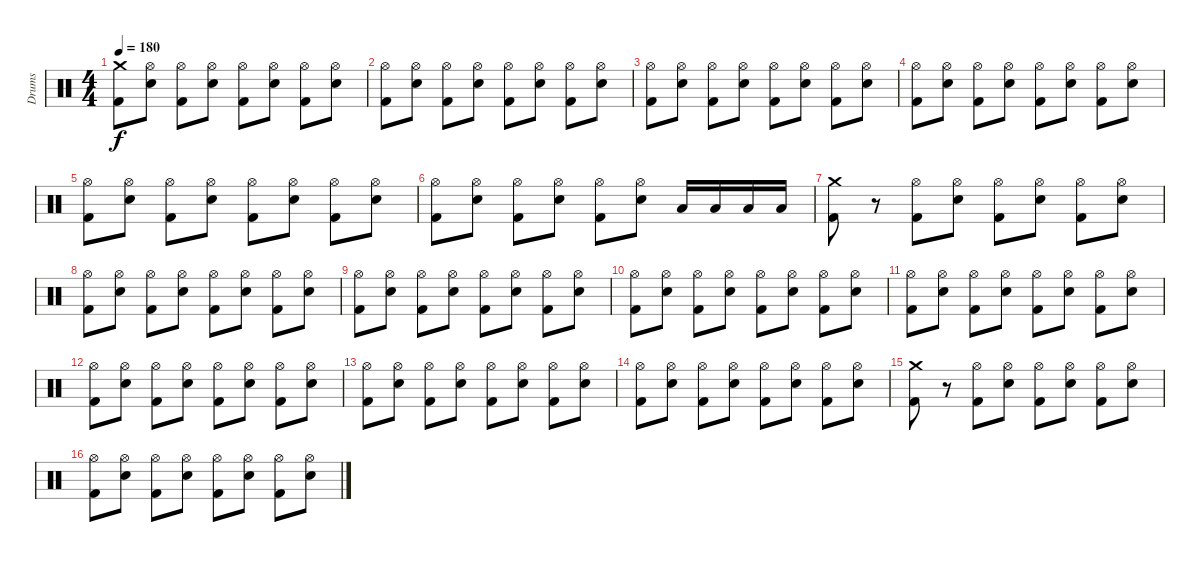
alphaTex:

\track ("Drums" "Drums") {instrument percussion}
\staff {score}
\articulation defaults
\ts (4 4)
\tempo 180
\clef neutral
\ks c
("Kick (hit) 2" "Crash medium (hit)").8{dy f} ("Electric Snare (hit)" "Hi-Hat (open)").8 ("Kick (hit) 2" "Hi-Hat (open)").8 ("Electric Snare (hit)" "Hi-Hat (open)").8 ("Kick (hit) 2" "Hi-Hat (open)").8 ("Electric Snare (hit)" "Hi-Hat (open)").8 ("Kick (hit) 2" "Hi-Hat (open)").8 ("Electric Snare (hit)" "Hi-Hat (open)").8 |
("Hi-Hat (open)" "Kick (hit) 2").8 ("Electric Snare (hit)" "Hi-Hat (open)").8 ("Kick (hit) 2" "Hi-Hat (open)").8 ("Electric Snare (hit)" "Hi-Hat (open)").8 ("Kick (hit) 2" "Hi-Hat (open)").8 ("Electric Snare (hit)" "Hi-Hat (open)").8 ("Kick (hit) 2" "Hi-Hat (open)").8 ("Electric Snare (hit)" "Hi-Hat (open)").8 |
("Hi-Hat (open)" "Kick (hit) 2").8 ("Electric Snare (hit)" "Hi-Hat (open)").8 ("Kick (hit) 2" "Hi-Hat (open)").8 ("Electric Snare (hit)" "Hi-Hat (open)").8 ("Kick (hit) 2" "Hi-Hat (open)").8 ("Electric Snare (hit)" "Hi-Hat (open)").8 ("Kick (hit) 2" "Hi-Hat (open)").8 ("Electric Snare (hit)" "Hi-Hat (open)").8 |
("Hi-Hat (open)" "Kick (hit) 2").8 ("Electric Snare (hit)" "Hi-Hat (open)").8 ("Kick (hit) 2" "Hi-Hat (open)").8 ("Electric Snare (hit)" "Hi-Hat (open)").8 ("Kick (hit) 2" "Hi-Hat (open)").8 ("Electric Snare (hit)" "Hi-Hat (open)").8 ("Kick (hit) 2" "Hi-Hat (open)").8 ("Electric Snare (hit)" "Hi-Hat (open)").8 |
("Hi-Hat (open)" "Kick (hit) 2").8 ("Electric Snare (hit)" "Hi-Hat (open)").8 ("Kick (hit) 2" "Hi-Hat (open)").8 ("Electric Snare (hit)" "Hi-Hat (open)").8 ("Kick (hit) 2" "Hi-Hat (open)").8 ("Electric Snare (hit)" "Hi-Hat (open)").8 ("Kick (hit) 2" "Hi-Hat (open)").8 ("Electric Snare (hit)" "Hi-Hat (open)").8 |
("Hi-Hat (open)" "Kick (hit) 2").8 ("Electric Snare (hit)" "Hi-Hat (open)").8 ("Kick (hit) 2" "Hi-Hat (open)").8 ("Electric Snare (hit)" "Hi-Hat (open)").8 ("Kick (hit) 2" "Hi-Hat (open)").8 ("Electric Snare (hit)" "Hi-Hat (open)").8 "Low Tom (hit)".16 "Low Tom (hit)".16 "Low Tom (hit)".16 "Low Tom (hit)".16 |
("Crash medium (hit)" "Kick (hit) 2").8 r.8 ("Kick (hit) 2" "Hi-Hat (open)").8 ("Electric Snare (hit)" "Hi-Hat (open)").8 ("Kick (hit) 2" "Hi-Hat (open)").8 ("Electric Snare (hit)" "Hi-Hat (open)").8 ("Kick (hit) 2" "Hi-Hat (open)").8 ("Electric Snare (hit)" "Hi-Hat (open)").8 |
("Hi-Hat (open)" "Kick (hit) 2").8 ("Electric Snare (hit)" "Hi-Hat (open)").8 ("Kick (hit) 2" "Hi-Hat (open)").8 ("Electric Snare (hit)" "Hi-Hat (open)").8 ("Kick (hit) 2" "Hi-Hat (open)").8 ("Electric Snare (hit)" "Hi-Hat (open)").8 ("Kick (hit) 2" "Hi-Hat (open)").8 ("Electric Snare (hit)" "Hi-Hat (open)").8 |
("Hi-Hat (open)" "Kick (hit) 2").8 ("Electric Snare (hit)" "Hi-Hat (open)").8 ("Kick (hit) 2" "Hi-Hat (open)").8 ("Electric Snare (hit)" "Hi-Hat (open)").8 ("Kick (hit) 2" "Hi-Hat (open)").8 ("Electric Snare (hit)" "Hi-Hat (open)").8 ("Kick (hit) 2" "Hi-Hat (open)").8 ("Electric Snare (hit)" "Hi-Hat (open)").8 |
("Hi-Hat (open)" "Kick (hit) 2").8 ("Electric Snare (hit)" "Hi-Hat (open)").8 ("Kick (hit) 2" "Hi-Hat (open)").8 ("Electric Snare (hit)" "Hi-Hat (open)").8 ("Kick (hit) 2" "Hi-Hat (open)").8 ("Electric Snare (hit)" "Hi-Hat (open)").8 ("Kick (hit) 2" "Hi-Hat (open)").8 ("Electric Snare (hit)" "Hi-Hat (open)").8 |
("Hi-Hat (open)" "Kick (hit) 2").8 ("Electric Snare (hit)" "Hi-Hat (open)").8 ("Kick (hit) 2" "Hi-Hat (open)").8 ("Electric Snare (hit)" "Hi-Hat (open)").8 ("Kick (hit) 2" "Hi-Hat (open)").8 ("Electric Snare (hit)" "Hi-Hat (open)").8 ("Kick (hit) 2" "Hi-Hat (open)").8 ("Electric Snare (hit)" "Hi-Hat (open)").8 |
("Hi-Hat (open)" "Kick (hit) 2").8 ("Electric Snare (hit)" "Hi-Hat (open)").8 ("Kick (hit) 2" "Hi-Hat (open)").8 ("Electric Snare (hit)" "Hi-Hat (open)").8 ("Kick (hit) 2" "Hi-Hat (open)").8 ("Electric Snare (hit)" "Hi-Hat (open)").8 ("Kick (hit) 2" "Hi-Hat (open)").8 ("Electric Snare (hit)" "Hi-Hat (open)").8 |
("Hi-Hat (open)" "Kick (hit) 2").8 ("Electric Snare (hit)" "Hi-Hat (open)").8 ("Kick (hit) 2" "Hi-Hat (open)").8 ("Electric Snare (hit)" "Hi-Hat (open)").8 ("Kick (hit) 2" "Hi-Hat (open)").8 ("Electric Snare (hit)" "Hi-Hat (open)").8 ("Kick (hit) 2" "Hi-Hat (open)").8 ("Electric Snare (hit)" "Hi-Hat (open)").8 |
("Hi-Hat (open)" "Kick (hit) 2").8 ("Electric Snare (hit)" "Hi-Hat (open)").8 ("Kick (hit) 2" "Hi-Hat (open)").8 ("Electric Snare (hit)" "Hi-Hat (open)").8 ("Kick (hit) 2" "Hi-Hat (open)").8 ("Electric Snare (hit)" "Hi-Hat (open)").8 ("Kick (hit) 2" "Hi-Hat (open)").8 ("Electric Snare (hit)" "Hi-Hat (open)").8 |
("Crash medium (hit)" "Kick (hit) 2").8 r.8 ("Kick (hit) 2" "Hi-Hat (open)").8 ("Electric Snare (hit)" "Hi-Hat (open)").8 ("Kick (hit) 2" "Hi-Hat (open)").8 ("Electric Snare (hit)" "Hi-Hat (open)").8 ("Kick (hit) 2" "Hi-Hat (open)").8 ("Electric Snare (hit)" "Hi-Hat (open)").8 |
("Hi-Hat (open)" "Kick (hit) 2").8 ("Electric Snare (hit)" "Hi-Hat (open)").8 ("Kick (hit) 2" "Hi-Hat (open)").8 ("Electric Snare (hit)" "Hi-Hat (open)").8 ("Kick (hit) 2" "Hi-Hat (open)").8 ("Electric Snare (hit)" "Hi-Hat (open)").8 ("Kick (hit) 2" "Hi-Hat (open)").8 ("Electric Snare (hit)" "Hi-Hat (open)").8
